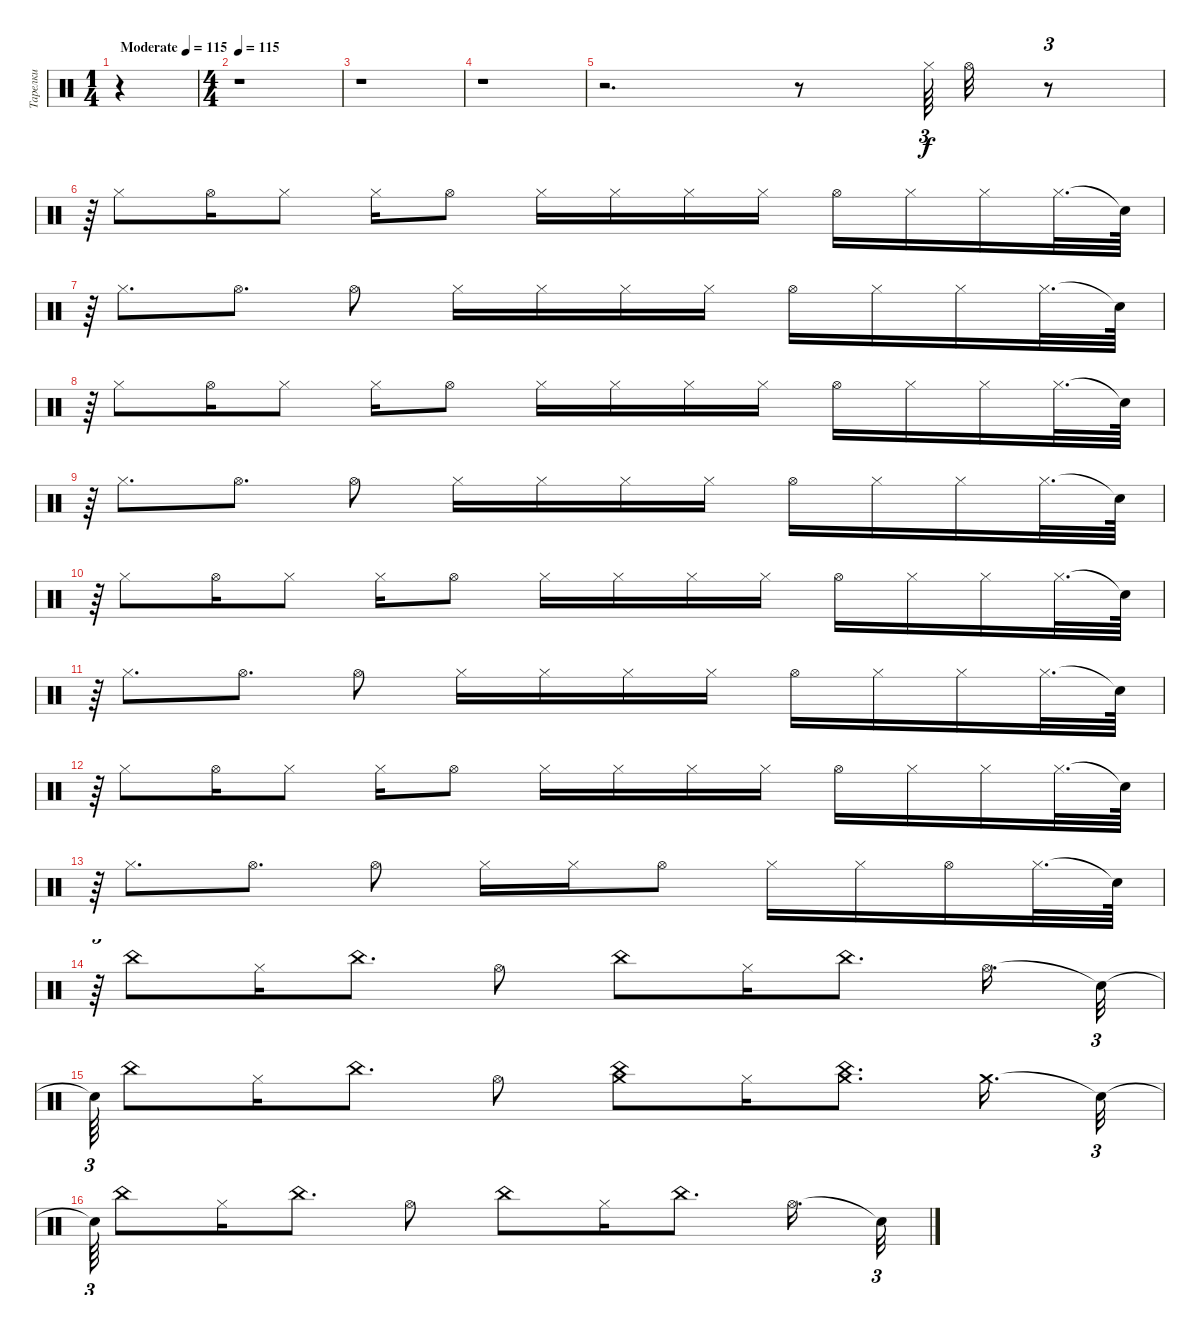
\track ("Тарелки" "Тарелки") {instrument percussion}
\staff {score}
\articulation defaults
\ts (1 4)
\tempo (115 "Moderate")
\clef neutral
\ks c
r.4{dy f} |
\ts (4 4)
\tempo 115
r.1 |
r.1 |
r.1 |
r.2{d} r.8 "Hi-Hat (closed)".64{tu (3 2)} "Hi-Hat (open)".32 r.8{tu (3 2)} |
r.64{tu (3 2)} "Hi-Hat (closed)".8 "Hi-Hat (open)".16 "Hi-Hat (closed)".8 "Hi-Hat (closed)".16 "Hi-Hat (open)".8 "Hi-Hat (closed)".16 "Hi-Hat (closed)".16 "Hi-Hat (closed)".16 "Hi-Hat (closed)".16 "Hi-Hat (open)".16 "Hi-Hat (closed)".16 "Hi-Hat (closed)".16 "Hi-Hat (closed)".32{d} "Snare (hit)"{t}.64 |
r.64{tu (3 2)} "Hi-Hat (closed)".8{d} "Hi-Hat (open)".8{d} "Hi-Hat (open)".8 "Hi-Hat (closed)".16 "Hi-Hat (closed)".16 "Hi-Hat (closed)".16 "Hi-Hat (closed)".16 "Hi-Hat (open)".16 "Hi-Hat (closed)".16 "Hi-Hat (closed)".16 "Hi-Hat (closed)".32{d} "Snare (hit)"{t}.64 |
r.64{tu (3 2)} "Hi-Hat (closed)".8 "Hi-Hat (open)".16 "Hi-Hat (closed)".8 "Hi-Hat (closed)".16 "Hi-Hat (open)".8 "Hi-Hat (closed)".16 "Hi-Hat (closed)".16 "Hi-Hat (closed)".16 "Hi-Hat (closed)".16 "Hi-Hat (open)".16 "Hi-Hat (closed)".16 "Hi-Hat (closed)".16 "Hi-Hat (closed)".32{d} "Snare (hit)"{t}.64 |
r.64{tu (3 2)} "Hi-Hat (closed)".8{d} "Hi-Hat (open)".8{d} "Hi-Hat (open)".8 "Hi-Hat (closed)".16 "Hi-Hat (closed)".16 "Hi-Hat (closed)".16 "Hi-Hat (closed)".16 "Hi-Hat (open)".16 "Hi-Hat (closed)".16 "Hi-Hat (closed)".16 "Hi-Hat (closed)".32{d} "Snare (hit)"{t}.64 |
r.64{tu (3 2)} "Hi-Hat (closed)".8 "Hi-Hat (open)".16 "Hi-Hat (closed)".8 "Hi-Hat (closed)".16 "Hi-Hat (open)".8 "Hi-Hat (closed)".16 "Hi-Hat (closed)".16 "Hi-Hat (closed)".16 "Hi-Hat (closed)".16 "Hi-Hat (open)".16 "Hi-Hat (closed)".16 "Hi-Hat (closed)".16 "Hi-Hat (closed)".32{d} "Snare (hit)"{t}.64 |
r.64{tu (3 2)} "Hi-Hat (closed)".8{d} "Hi-Hat (open)".8{d} "Hi-Hat (open)".8 "Hi-Hat (closed)".16 "Hi-Hat (closed)".16 "Hi-Hat (closed)".16 "Hi-Hat (closed)".16 "Hi-Hat (open)".16 "Hi-Hat (closed)".16 "Hi-Hat (closed)".16 "Hi-Hat (closed)".32{d} "Snare (hit)"{t}.64 |
r.64{tu (3 2)} "Hi-Hat (closed)".8 "Hi-Hat (open)".16 "Hi-Hat (closed)".8 "Hi-Hat (closed)".16 "Hi-Hat (open)".8 "Hi-Hat (closed)".16 "Hi-Hat (closed)".16 "Hi-Hat (closed)".16 "Hi-Hat (closed)".16 "Hi-Hat (open)".16 "Hi-Hat (closed)".16 "Hi-Hat (closed)".16 "Hi-Hat (closed)".32{d} "Snare (hit)"{t}.64 |
r.64{tu (3 2)} "Hi-Hat (closed)".8{d} "Hi-Hat (open)".8{d} "Hi-Hat (open)".8 "Hi-Hat (closed)".16 "Hi-Hat (closed)".16 "Hi-Hat (open)".8 "Hi-Hat (closed)".16 "Hi-Hat (closed)".16 "Hi-Hat (open)".16 "Hi-Hat (closed)".32{d} "Snare (hit)"{t}.64 |
r.64{tu (3 2)} "China (hit)".8 "Hi-Hat (closed)".16 "China (hit)".8{d} "Hi-Hat (open)".8 "China (hit)".8 "Hi-Hat (closed)".16 "China (hit)".8{d} "Hi-Hat (open)".16{d} "Snare (hit)"{t}.32{tu (3 2)} |
"Snare (hit)"{t}.64{tu (3 2)} "China (hit)".8 "Hi-Hat (closed)".16 "China (hit)".8{d} "Hi-Hat (open)".8 ("China (hit)" "Crash medium (hit)").8 "Hi-Hat (closed)".16 ("China (hit)" "Crash medium (hit)").8{d} "Crash medium (hit)".16{d} "Snare (hit)"{t}.32{tu (3 2)} |
"Snare (hit)"{t}.64{tu (3 2)} "China (hit)".8 "Hi-Hat (closed)".16 "China (hit)".8{d} "Hi-Hat (open)".8 "China (hit)".8 "Hi-Hat (closed)".16 "China (hit)".8{d} "Hi-Hat (open)".16{d} "Snare (hit)"{t}.32{tu (3 2)}
